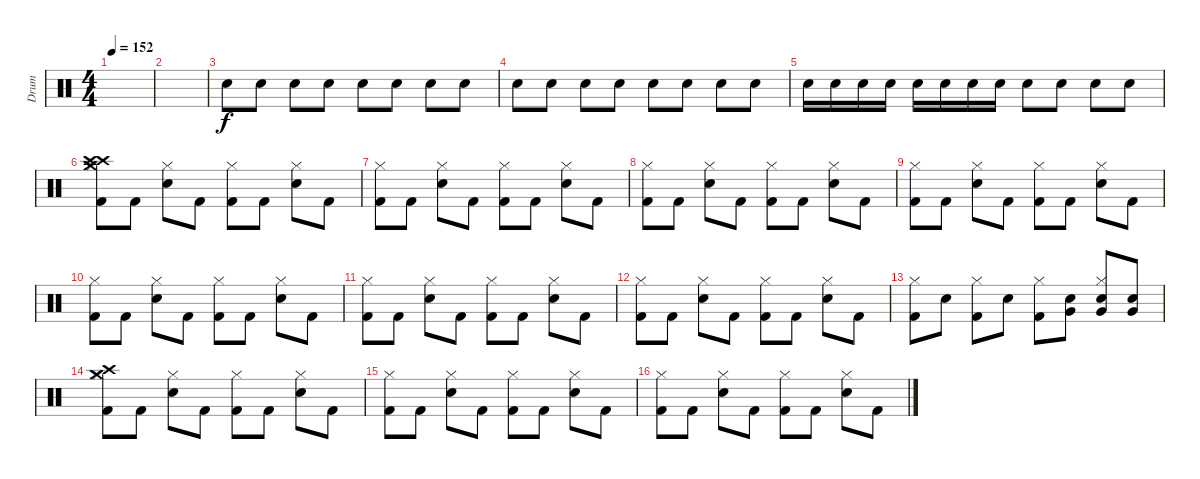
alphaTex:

\track ("Drum" "Drum") {instrument percussion}
\staff {score}
\articulation defaults
\ts (4 4)
\tempo 152
\clef neutral
\ks c
|
|
"Electric Snare (hit)".8{volume 12} "Electric Snare (hit)".8 "Electric Snare (hit)".8 "Electric Snare (hit)".8 "Electric Snare (hit)".8 "Electric Snare (hit)".8 "Electric Snare (hit)".8 "Electric Snare (hit)".8 |
"Electric Snare (hit)".8 "Electric Snare (hit)".8 "Electric Snare (hit)".8 "Electric Snare (hit)".8 "Electric Snare (hit)".8 "Electric Snare (hit)".8 "Electric Snare (hit)".8 "Electric Snare (hit)".8 |
"Electric Snare (hit)".16 "Electric Snare (hit)".16 "Electric Snare (hit)".16 "Electric Snare (hit)".16 "Electric Snare (hit)".16 "Electric Snare (hit)".16 "Electric Snare (hit)".16 "Electric Snare (hit)".16 "Electric Snare (hit)".8 "Electric Snare (hit)".8 "Electric Snare (hit)".8 "Electric Snare (hit)".8 |
("Crash high (hit)" "Crash medium (hit)" "Hi-Hat (closed)" "Crash high (hit)" "Kick (hit) 2").8 "Kick (hit) 2".8 ("Hi-Hat (closed)" "Electric Snare (hit)").8 "Kick (hit) 2".8 ("Hi-Hat (closed)" "Kick (hit) 2").8 "Kick (hit) 2".8 ("Hi-Hat (closed)" "Electric Snare (hit)").8 "Kick (hit) 2".8 |
("Hi-Hat (closed)" "Kick (hit) 2").8 "Kick (hit) 2".8 ("Hi-Hat (closed)" "Electric Snare (hit)").8 "Kick (hit) 2".8 ("Hi-Hat (closed)" "Kick (hit) 2").8 "Kick (hit) 2".8 ("Hi-Hat (closed)" "Electric Snare (hit)").8 "Kick (hit) 2".8 |
("Hi-Hat (closed)" "Kick (hit) 2").8 "Kick (hit) 2".8 ("Hi-Hat (closed)" "Electric Snare (hit)").8 "Kick (hit) 2".8 ("Hi-Hat (closed)" "Kick (hit) 2").8 "Kick (hit) 2".8 ("Hi-Hat (closed)" "Electric Snare (hit)").8 "Kick (hit) 2".8 |
("Hi-Hat (closed)" "Kick (hit) 2").8 "Kick (hit) 2".8 ("Hi-Hat (closed)" "Electric Snare (hit)").8 "Kick (hit) 2".8 ("Hi-Hat (closed)" "Kick (hit) 2").8 "Kick (hit) 2".8 ("Hi-Hat (closed)" "Electric Snare (hit)").8 "Kick (hit) 2".8 |
("Hi-Hat (closed)" "Kick (hit) 2").8 "Kick (hit) 2".8 ("Hi-Hat (closed)" "Electric Snare (hit)").8 "Kick (hit) 2".8 ("Hi-Hat (closed)" "Kick (hit) 2").8 "Kick (hit) 2".8 ("Hi-Hat (closed)" "Electric Snare (hit)").8 "Kick (hit) 2".8 |
("Hi-Hat (closed)" "Kick (hit) 2").8 "Kick (hit) 2".8 ("Hi-Hat (closed)" "Electric Snare (hit)").8 "Kick (hit) 2".8 ("Hi-Hat (closed)" "Kick (hit) 2").8 "Kick (hit) 2".8 ("Hi-Hat (closed)" "Electric Snare (hit)").8 "Kick (hit) 2".8 |
("Hi-Hat (closed)" "Kick (hit) 2").8 "Kick (hit) 2".8 ("Hi-Hat (closed)" "Electric Snare (hit)").8 "Kick (hit) 2".8 ("Hi-Hat (closed)" "Kick (hit) 2").8 "Kick (hit) 2".8 ("Hi-Hat (closed)" "Electric Snare (hit)").8 "Kick (hit) 2".8 |
("Hi-Hat (closed)" "Kick (hit) 2").8 "Electric Snare (hit)".8 ("Hi-Hat (closed)" "Kick (hit) 2").8 "Electric Snare (hit)".8 ("Hi-Hat (closed)" "Kick (hit) 2").8 ("Very Low Tom (hit)" "Electric Snare (hit)").8 ("Hi-Hat (closed)" "Very Low Tom (hit)" "Electric Snare (hit)").8 ("Very Low Tom (hit)" "Electric Snare (hit)").8 |
("Crash high (hit)" "Crash medium (hit)" "Hi-Hat (closed)" "Kick (hit) 2").8 "Kick (hit) 2".8 ("Hi-Hat (closed)" "Electric Snare (hit)").8 "Kick (hit) 2".8 ("Hi-Hat (closed)" "Kick (hit) 2").8 "Kick (hit) 2".8 ("Hi-Hat (closed)" "Electric Snare (hit)").8 "Kick (hit) 2".8 |
("Hi-Hat (closed)" "Kick (hit) 2").8 "Kick (hit) 2".8 ("Hi-Hat (closed)" "Electric Snare (hit)").8 "Kick (hit) 2".8 ("Hi-Hat (closed)" "Kick (hit) 2").8 "Kick (hit) 2".8 ("Hi-Hat (closed)" "Electric Snare (hit)").8 "Kick (hit) 2".8 |
("Hi-Hat (closed)" "Kick (hit) 2").8 "Kick (hit) 2".8 ("Hi-Hat (closed)" "Electric Snare (hit)").8 "Kick (hit) 2".8 ("Hi-Hat (closed)" "Kick (hit) 2").8 "Kick (hit) 2".8 ("Hi-Hat (closed)" "Electric Snare (hit)").8 "Kick (hit) 2".8
